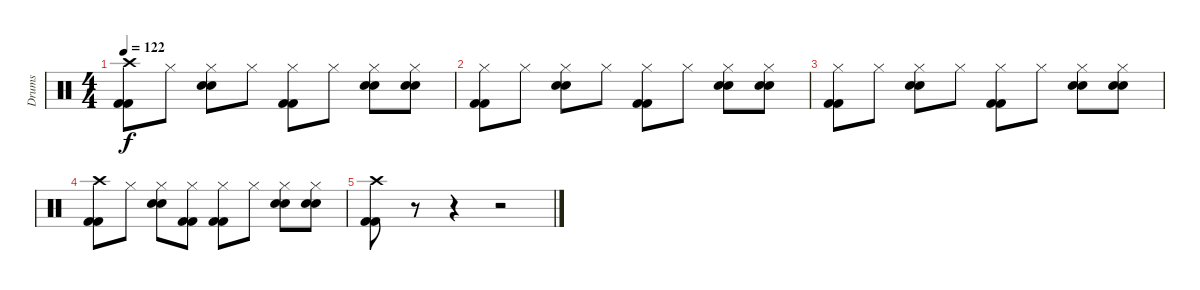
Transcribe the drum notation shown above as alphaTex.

\track ("Drums" "Drums") {instrument percussion}
\staff {score}
\articulation defaults
\ts (4 4)
\tempo 122
\clef neutral
\ks c
("Crash high (hit)" "Kick (hit) 2" "Kick (hit) 2").8{dy f} "Hi-Hat (closed)".8 ("Hi-Hat (closed)" "Hand Clap (hit)" "Snare (hit) 2").8 "Hi-Hat (closed)".8 ("Hi-Hat (closed)" "Kick (hit) 2" "Kick (hit) 2").8 "Hi-Hat (closed)".8 ("Hi-Hat (closed)" "Hand Clap (hit)" "Snare (hit) 2").8 ("Hi-Hat (closed)" "Hand Clap (hit)" "Snare (hit) 2").8 |
("Hi-Hat (closed)" "Kick (hit) 2" "Kick (hit) 2").8 "Hi-Hat (closed)".8 ("Hi-Hat (closed)" "Hand Clap (hit)" "Snare (hit) 2").8 "Hi-Hat (closed)".8 ("Hi-Hat (closed)" "Kick (hit) 2" "Kick (hit) 2").8 "Hi-Hat (closed)".8 ("Hi-Hat (closed)" "Hand Clap (hit)" "Snare (hit) 2").8 ("Hi-Hat (closed)" "Hand Clap (hit)" "Snare (hit) 2").8 |
("Hi-Hat (closed)" "Kick (hit) 2" "Kick (hit) 2").8 "Hi-Hat (closed)".8 ("Hi-Hat (closed)" "Hand Clap (hit)" "Snare (hit) 2").8 "Hi-Hat (closed)".8 ("Hi-Hat (closed)" "Kick (hit) 2" "Kick (hit) 2").8 "Hi-Hat (closed)".8 ("Hi-Hat (closed)" "Hand Clap (hit)" "Snare (hit) 2").8 ("Hi-Hat (closed)" "Hand Clap (hit)" "Snare (hit) 2").8 |
("Crash high (hit)" "Kick (hit) 2" "Kick (hit) 2").8 "Hi-Hat (closed)".8 ("Hi-Hat (closed)" "Hand Clap (hit)" "Snare (hit) 2").8 ("Hi-Hat (closed)" "Kick (hit) 2" "Kick (hit) 2").8 ("Hi-Hat (closed)" "Kick (hit) 2" "Kick (hit) 2").8 "Hi-Hat (closed)".8 ("Hi-Hat (closed)" "Hand Clap (hit)" "Snare (hit) 2").8 ("Hi-Hat (closed)" "Hand Clap (hit)" "Snare (hit) 2").8 |
("Crash high (hit)" "Kick (hit) 2" "Kick (hit) 2").8 r.8 r.4 r.2
